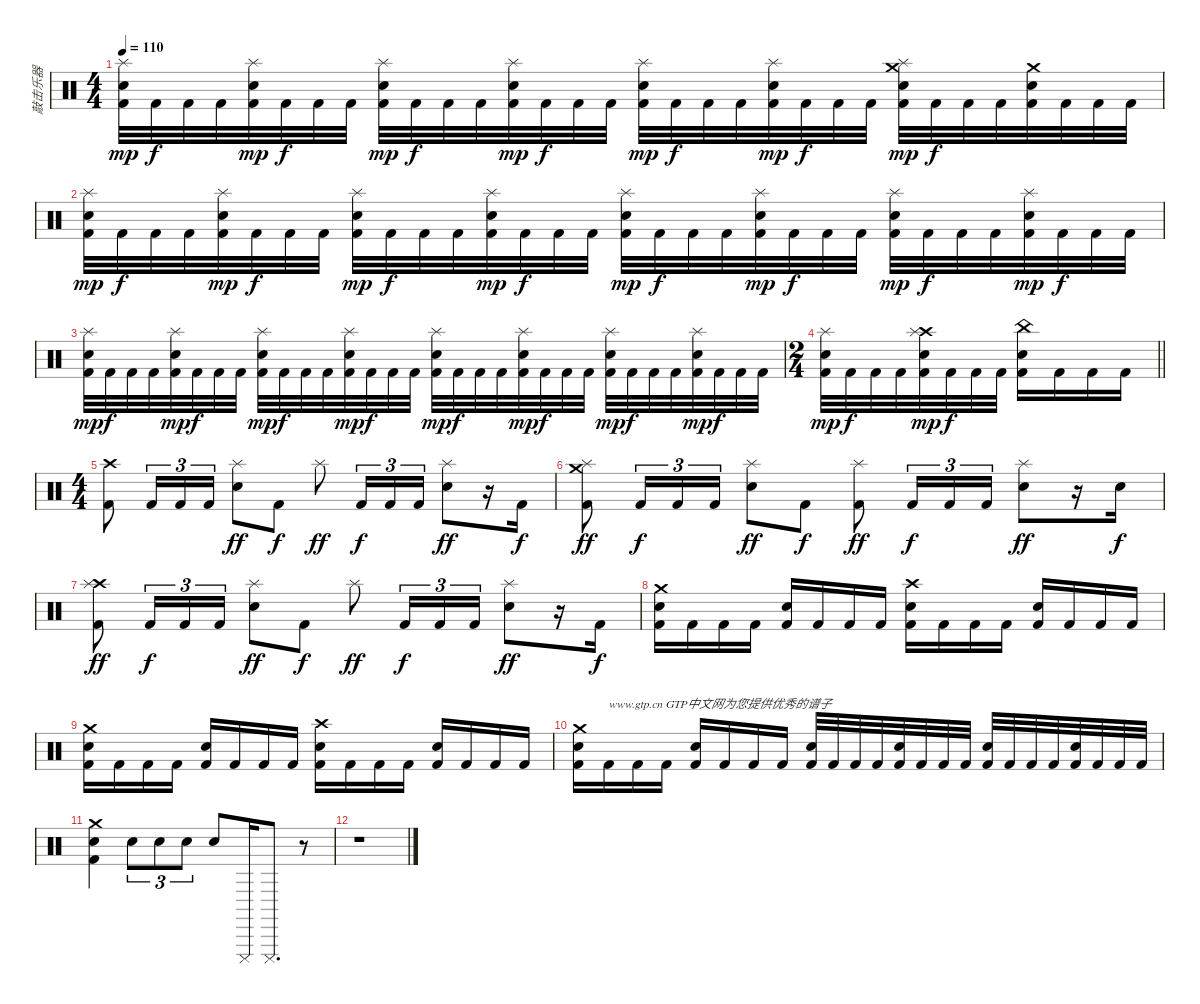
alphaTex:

\track ("敲击乐器" "敲击乐器") {instrument percussion}
\staff {score}
\articulation defaults
\ts (4 4)
\tempo 110
\clef neutral
\ks c
("Splash (hit)" "Snare (hit) 2" "Kick (hit) 2").32{dy mp} "Kick (hit) 2".32{dy f} "Kick (hit) 2".32 "Kick (hit) 2".32 ("Splash (hit)" "Snare (hit) 2" "Kick (hit) 2").32{dy mp} "Kick (hit) 2".32{dy f} "Kick (hit) 2".32 "Kick (hit) 2".32 ("Splash (hit)" "Snare (hit) 2" "Kick (hit) 2").32{dy mp} "Kick (hit) 2".32{dy f} "Kick (hit) 2".32 "Kick (hit) 2".32 ("Splash (hit)" "Snare (hit) 2" "Kick (hit) 2").32{dy mp} "Kick (hit) 2".32{dy f} "Kick (hit) 2".32 "Kick (hit) 2".32 ("Splash (hit)" "Snare (hit) 2" "Kick (hit) 2").32{dy mp} "Kick (hit) 2".32{dy f} "Kick (hit) 2".32 "Kick (hit) 2".32 ("Splash (hit)" "Snare (hit) 2" "Kick (hit) 2").32{dy mp} "Kick (hit) 2".32{dy f} "Kick (hit) 2".32 "Kick (hit) 2".32 ("Crash medium (hit)" "Splash (hit)" "Snare (hit) 2" "Kick (hit) 2").32{dy mp} "Kick (hit) 2".32{dy f} "Kick (hit) 2".32 "Kick (hit) 2".32 ("Crash medium (hit)" "Snare (hit) 2" "Kick (hit) 2").32 "Kick (hit) 2".32 "Kick (hit) 2".32 "Kick (hit) 2".32 |
("Splash (hit)" "Snare (hit) 2" "Kick (hit) 2").32{dy mp} "Kick (hit) 2".32{dy f} "Kick (hit) 2".32 "Kick (hit) 2".32 ("Splash (hit)" "Snare (hit) 2" "Kick (hit) 2").32{dy mp} "Kick (hit) 2".32{dy f} "Kick (hit) 2".32 "Kick (hit) 2".32 ("Splash (hit)" "Snare (hit) 2" "Kick (hit) 2").32{dy mp} "Kick (hit) 2".32{dy f} "Kick (hit) 2".32 "Kick (hit) 2".32 ("Splash (hit)" "Snare (hit) 2" "Kick (hit) 2").32{dy mp} "Kick (hit) 2".32{dy f} "Kick (hit) 2".32 "Kick (hit) 2".32 ("Splash (hit)" "Snare (hit) 2" "Kick (hit) 2").32{dy mp} "Kick (hit) 2".32{dy f} "Kick (hit) 2".32 "Kick (hit) 2".32 ("Splash (hit)" "Snare (hit) 2" "Kick (hit) 2").32{dy mp} "Kick (hit) 2".32{dy f} "Kick (hit) 2".32 "Kick (hit) 2".32 ("Splash (hit)" "Snare (hit) 2" "Kick (hit) 2").32{dy mp} "Kick (hit) 2".32{dy f} "Kick (hit) 2".32 "Kick (hit) 2".32 ("Splash (hit)" "Snare (hit) 2" "Kick (hit) 2").32{dy mp} "Kick (hit) 2".32{dy f} "Kick (hit) 2".32 "Kick (hit) 2".32 |
("Splash (hit)" "Snare (hit) 2" "Kick (hit) 2").32{dy mp} "Kick (hit) 2".32{dy f} "Kick (hit) 2".32 "Kick (hit) 2".32 ("Splash (hit)" "Snare (hit) 2" "Kick (hit) 2").32{dy mp} "Kick (hit) 2".32{dy f} "Kick (hit) 2".32 "Kick (hit) 2".32 ("Splash (hit)" "Snare (hit) 2" "Kick (hit) 2").32{dy mp} "Kick (hit) 2".32{dy f} "Kick (hit) 2".32 "Kick (hit) 2".32 ("Splash (hit)" "Snare (hit) 2" "Kick (hit) 2").32{dy mp} "Kick (hit) 2".32{dy f} "Kick (hit) 2".32 "Kick (hit) 2".32 ("Splash (hit)" "Snare (hit) 2" "Kick (hit) 2").32{dy mp} "Kick (hit) 2".32{dy f} "Kick (hit) 2".32 "Kick (hit) 2".32 ("Splash (hit)" "Snare (hit) 2" "Kick (hit) 2").32{dy mp} "Kick (hit) 2".32{dy f} "Kick (hit) 2".32 "Kick (hit) 2".32 ("Splash (hit)" "Snare (hit) 2" "Kick (hit) 2").32{dy mp} "Kick (hit) 2".32{dy f} "Kick (hit) 2".32 "Kick (hit) 2".32 ("Splash (hit)" "Snare (hit) 2" "Kick (hit) 2").32{dy mp} "Kick (hit) 2".32{dy f} "Kick (hit) 2".32 "Kick (hit) 2".32 |
\ts (2 4)
\barLineRight lightlight
("Splash (hit)" "Snare (hit) 2" "Kick (hit) 2").32{dy mp} "Kick (hit) 2".32{dy f} "Kick (hit) 2".32 "Kick (hit) 2".32 ("Crash high (hit)" "Splash (hit)" "Snare (hit) 2" "Kick (hit) 2").32{dy mp} "Kick (hit) 2".32{dy f} "Kick (hit) 2".32 "Kick (hit) 2".32 ("China (hit)" "Snare (hit) 2" "Kick (hit) 2").16 "Kick (hit) 2".16 "Kick (hit) 2".16 "Kick (hit) 2".16 |
\ts (4 4)
("Crash high (hit)" "Kick (hit) 2").8 "Kick (hit) 2".16{tu (3 2)} "Kick (hit) 2".16{tu (3 2)} "Kick (hit) 2".16{tu (3 2)} ("Splash (hit)" "Snare (hit) 2").8{dy ff} "Kick (hit) 2".8{dy f} "Splash (hit)".8{dy ff} "Kick (hit) 2".16{tu (3 2) dy f} "Kick (hit) 2".16{tu (3 2)} "Kick (hit) 2".16{tu (3 2)} ("Splash (hit)" "Snare (hit) 2").8{dy ff} r.16 "Kick (hit) 2".16{dy f} |
("Crash medium (hit)" "Splash (hit)" "Kick (hit) 2").8{dy ff} "Kick (hit) 2".16{tu (3 2) dy f} "Kick (hit) 2".16{tu (3 2)} "Kick (hit) 2".16{tu (3 2)} ("Splash (hit)" "Snare (hit) 2").8{dy ff} "Kick (hit) 2".8{dy f} ("Splash (hit)" "Kick (hit) 2").8{dy ff} "Kick (hit) 2".16{tu (3 2) dy f} "Kick (hit) 2".16{tu (3 2)} "Kick (hit) 2".16{tu (3 2)} ("Splash (hit)" "Snare (hit) 2").8{dy ff} r.16 "Snare (hit) 2".16{dy f} |
("Crash high (hit)" "Splash (hit)" "Kick (hit) 2").8{dy ff} "Kick (hit) 2".16{tu (3 2) dy f} "Kick (hit) 2".16{tu (3 2)} "Kick (hit) 2".16{tu (3 2)} ("Splash (hit)" "Snare (hit) 2").8{dy ff} "Kick (hit) 2".8{dy f} "Splash (hit)".8{dy ff} "Kick (hit) 2".16{tu (3 2) dy f} "Kick (hit) 2".16{tu (3 2)} "Kick (hit) 2".16{tu (3 2)} ("Splash (hit)" "Snare (hit) 2").8{dy ff} r.16 "Kick (hit) 2".16{dy f} |
("Crash medium (hit)" "Snare (hit) 2" "Kick (hit) 2").16 "Kick (hit) 2".16 "Kick (hit) 2".16 "Kick (hit) 2".16 ("Snare (hit) 2" "Kick (hit) 2").16 "Kick (hit) 2".16 "Kick (hit) 2".16 "Kick (hit) 2".16 ("Crash high (hit)" "Snare (hit) 2" "Kick (hit) 2").16 "Kick (hit) 2".16 "Kick (hit) 2".16 "Kick (hit) 2".16 ("Snare (hit) 2" "Kick (hit) 2").16 "Kick (hit) 2".16 "Kick (hit) 2".16 "Kick (hit) 2".16 |
("Crash medium (hit)" "Snare (hit) 2" "Kick (hit) 2").16 "Kick (hit) 2".16 "Kick (hit) 2".16 "Kick (hit) 2".16 ("Snare (hit) 2" "Kick (hit) 2").16 "Kick (hit) 2".16 "Kick (hit) 2".16 "Kick (hit) 2".16 ("Crash high (hit)" "Snare (hit) 2" "Kick (hit) 2").16 "Kick (hit) 2".16 "Kick (hit) 2".16 "Kick (hit) 2".16 ("Snare (hit) 2" "Kick (hit) 2").16 "Kick (hit) 2".16 "Kick (hit) 2".16 "Kick (hit) 2".16 |
("Crash medium (hit)" "Snare (hit) 2" "Kick (hit) 2").16 "Kick (hit) 2".16{txt "www.gtp.cn GTP中文网为您提供优秀的谱子"} "Kick (hit) 2".16 "Kick (hit) 2".16 ("Snare (hit) 2" "Kick (hit) 2").16 "Kick (hit) 2".16 "Kick (hit) 2".16 "Kick (hit) 2".16 ("Snare (hit) 2" "Kick (hit) 2").32 "Kick (hit) 2".32 "Kick (hit) 2".32 "Kick (hit) 2".32 ("Snare (hit) 2" "Kick (hit) 2").32 "Kick (hit) 2".32 "Kick (hit) 2".32 "Kick (hit) 2".32 ("Snare (hit) 2" "Kick (hit) 2").32 "Kick (hit) 2".32 "Kick (hit) 2".32 "Kick (hit) 2".32 ("Snare (hit) 2" "Kick (hit) 2").32 "Kick (hit) 2".32 "Kick (hit) 2".32 "Kick (hit) 2".32 |
("Crash medium (hit)" "Snare (hit) 2" "Kick (hit) 2").4 "Snare (hit) 2".8{tu (3 2)} "Snare (hit) 2".8{tu (3 2)} "Snare (hit) 2".8{tu (3 2)} "Snare (hit) 2".8 "Cuica (mute)".16 "Cuica (mute)".8{d} r.8 |
r.1
